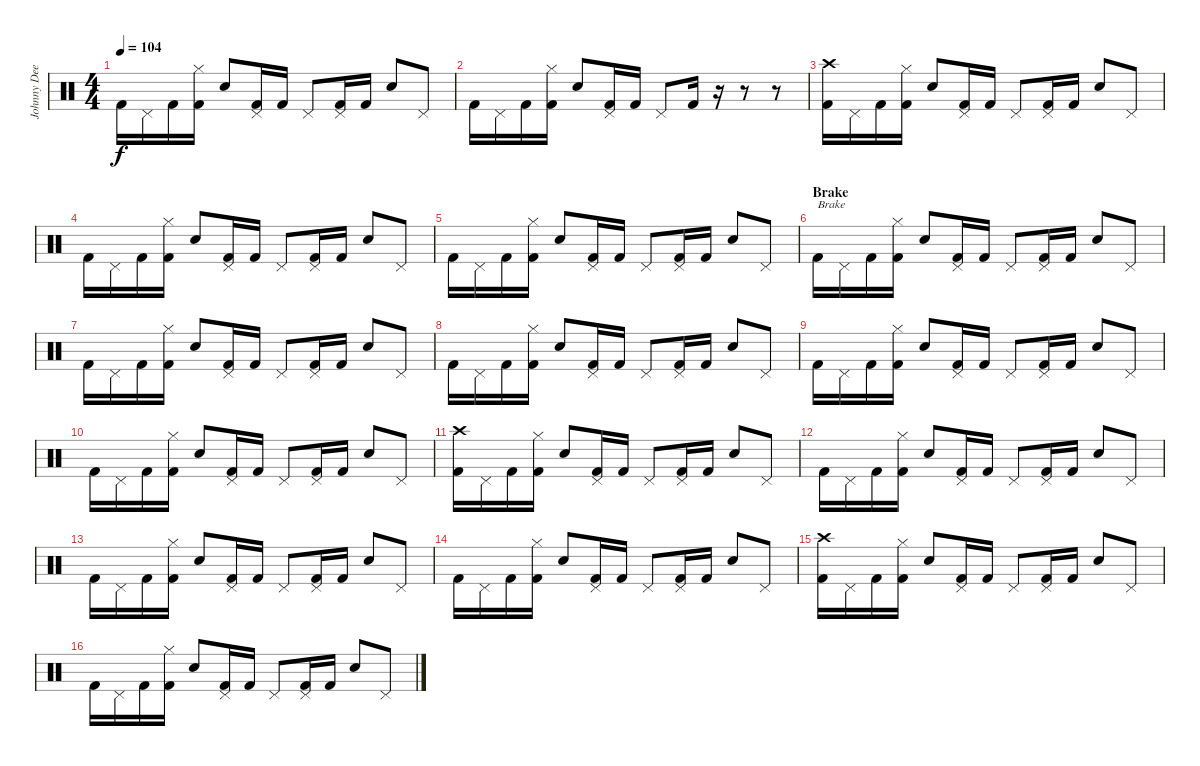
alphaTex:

\track ("Johnny Dee" "Johnny Dee") {instrument percussion}
\staff {score}
\articulation defaults
\ts (4 4)
\tempo 104
\clef neutral
\ks c "Kick (hit) 2".16{dy f} "Pedal Hi-Hat (hit)".16 "Kick (hit) 2".16
("Hi-Hat (closed)" "Kick (hit) 2").16 "Snare (hit) 2".8 ("Pedal Hi-Hat (hit)" "Kick (hit) 2").16 "Kick (hit) 2".16 "Pedal Hi-Hat (hit)".8 ("Pedal Hi-Hat (hit)" "Kick (hit) 2").16 "Kick (hit) 2".16 "Snare (hit) 2".8 "Pedal Hi-Hat (hit)".8 |
"Kick (hit) 2".16 "Pedal Hi-Hat (hit)".16 "Kick (hit) 2".16 ("Hi-Hat (closed)" "Kick (hit) 2").16 "Snare (hit) 2".8 ("Pedal Hi-Hat (hit)" "Kick (hit) 2").16 "Kick (hit) 2".16 "Pedal Hi-Hat (hit)".8 "Kick (hit) 2".16 r.16 r.8 r.8 |
("Crash high (hit)" "Kick (hit) 2").16 "Pedal Hi-Hat (hit)".16 "Kick (hit) 2".16 ("Hi-Hat (closed)" "Kick (hit) 2").16 "Snare (hit) 2".8 ("Pedal Hi-Hat (hit)" "Kick (hit) 2").16 "Kick (hit) 2".16 "Pedal Hi-Hat (hit)".8 ("Pedal Hi-Hat (hit)" "Kick (hit) 2").16 "Kick (hit) 2".16 "Snare (hit) 2".8 "Pedal Hi-Hat (hit)".8 |
"Kick (hit) 2".16 "Pedal Hi-Hat (hit)".16 "Kick (hit) 2".16 ("Hi-Hat (closed)" "Kick (hit) 2").16 "Snare (hit) 2".8 ("Pedal Hi-Hat (hit)" "Kick (hit) 2").16 "Kick (hit) 2".16 "Pedal Hi-Hat (hit)".8 ("Pedal Hi-Hat (hit)" "Kick (hit) 2").16 "Kick (hit) 2".16 "Snare (hit) 2".8 "Pedal Hi-Hat (hit)".8 |
"Kick (hit) 2".16 "Pedal Hi-Hat (hit)".16 "Kick (hit) 2".16 ("Hi-Hat (closed)" "Kick (hit) 2").16 "Snare (hit) 2".8 ("Pedal Hi-Hat (hit)" "Kick (hit) 2").16 "Kick (hit) 2".16 "Pedal Hi-Hat (hit)".8 ("Pedal Hi-Hat (hit)" "Kick (hit) 2").16 "Kick (hit) 2".16 "Snare (hit) 2".8 "Pedal Hi-Hat (hit)".8 |
\section ("" "Brake")
"Kick (hit) 2".16{txt "Brake"} "Pedal Hi-Hat (hit)".16 "Kick (hit) 2".16 ("Hi-Hat (closed)" "Kick (hit) 2").16 "Snare (hit) 2".8 ("Pedal Hi-Hat (hit)" "Kick (hit) 2").16 "Kick (hit) 2".16 "Pedal Hi-Hat (hit)".8 ("Pedal Hi-Hat (hit)" "Kick (hit) 2").16 "Kick (hit) 2".16 "Snare (hit) 2".8 "Pedal Hi-Hat (hit)".8 |
"Kick (hit) 2".16 "Pedal Hi-Hat (hit)".16 "Kick (hit) 2".16 ("Hi-Hat (closed)" "Kick (hit) 2").16 "Snare (hit) 2".8 ("Pedal Hi-Hat (hit)" "Kick (hit) 2").16 "Kick (hit) 2".16 "Pedal Hi-Hat (hit)".8 ("Pedal Hi-Hat (hit)" "Kick (hit) 2").16 "Kick (hit) 2".16 "Snare (hit) 2".8 "Pedal Hi-Hat (hit)".8 |
"Kick (hit) 2".16 "Pedal Hi-Hat (hit)".16 "Kick (hit) 2".16 ("Hi-Hat (closed)" "Kick (hit) 2").16 "Snare (hit) 2".8 ("Pedal Hi-Hat (hit)" "Kick (hit) 2").16 "Kick (hit) 2".16 "Pedal Hi-Hat (hit)".8 ("Pedal Hi-Hat (hit)" "Kick (hit) 2").16 "Kick (hit) 2".16 "Snare (hit) 2".8 "Pedal Hi-Hat (hit)".8 |
"Kick (hit) 2".16 "Pedal Hi-Hat (hit)".16 "Kick (hit) 2".16 ("Hi-Hat (closed)" "Kick (hit) 2").16 "Snare (hit) 2".8 ("Pedal Hi-Hat (hit)" "Kick (hit) 2").16 "Kick (hit) 2".16 "Pedal Hi-Hat (hit)".8 ("Pedal Hi-Hat (hit)" "Kick (hit) 2").16 "Kick (hit) 2".16 "Snare (hit) 2".8 "Pedal Hi-Hat (hit)".8 |
"Kick (hit) 2".16 "Pedal Hi-Hat (hit)".16 "Kick (hit) 2".16 ("Hi-Hat (closed)" "Kick (hit) 2").16 "Snare (hit) 2".8 ("Pedal Hi-Hat (hit)" "Kick (hit) 2").16 "Kick (hit) 2".16 "Pedal Hi-Hat (hit)".8 ("Pedal Hi-Hat (hit)" "Kick (hit) 2").16 "Kick (hit) 2".16 "Snare (hit) 2".8 "Pedal Hi-Hat (hit)".8 |
("Crash high (hit)" "Kick (hit) 2").16 "Pedal Hi-Hat (hit)".16 "Kick (hit) 2".16 ("Hi-Hat (closed)" "Kick (hit) 2").16 "Snare (hit) 2".8 ("Pedal Hi-Hat (hit)" "Kick (hit) 2").16 "Kick (hit) 2".16 "Pedal Hi-Hat (hit)".8 ("Pedal Hi-Hat (hit)" "Kick (hit) 2").16 "Kick (hit) 2".16 "Snare (hit) 2".8 "Pedal Hi-Hat (hit)".8 |
"Kick (hit) 2".16 "Pedal Hi-Hat (hit)".16 "Kick (hit) 2".16 ("Hi-Hat (closed)" "Kick (hit) 2").16 "Snare (hit) 2".8 ("Pedal Hi-Hat (hit)" "Kick (hit) 2").16 "Kick (hit) 2".16 "Pedal Hi-Hat (hit)".8 ("Pedal Hi-Hat (hit)" "Kick (hit) 2").16 "Kick (hit) 2".16 "Snare (hit) 2".8 "Pedal Hi-Hat (hit)".8 |
"Kick (hit) 2".16 "Pedal Hi-Hat (hit)".16 "Kick (hit) 2".16 ("Hi-Hat (closed)" "Kick (hit) 2").16 "Snare (hit) 2".8 ("Pedal Hi-Hat (hit)" "Kick (hit) 2").16 "Kick (hit) 2".16 "Pedal Hi-Hat (hit)".8 ("Pedal Hi-Hat (hit)" "Kick (hit) 2").16 "Kick (hit) 2".16 "Snare (hit) 2".8 "Pedal Hi-Hat (hit)".8 |
"Kick (hit) 2".16 "Pedal Hi-Hat (hit)".16 "Kick (hit) 2".16 ("Hi-Hat (closed)" "Kick (hit) 2").16 "Snare (hit) 2".8 ("Pedal Hi-Hat (hit)" "Kick (hit) 2").16 "Kick (hit) 2".16 "Pedal Hi-Hat (hit)".8 ("Pedal Hi-Hat (hit)" "Kick (hit) 2").16 "Kick (hit) 2".16 "Snare (hit) 2".8 "Pedal Hi-Hat (hit)".8 |
("Crash high (hit)" "Kick (hit) 2").16 "Pedal Hi-Hat (hit)".16 "Kick (hit) 2".16 ("Hi-Hat (closed)" "Kick (hit) 2").16 "Snare (hit) 2".8 ("Pedal Hi-Hat (hit)" "Kick (hit) 2").16 "Kick (hit) 2".16 "Pedal Hi-Hat (hit)".8 ("Pedal Hi-Hat (hit)" "Kick (hit) 2").16 "Kick (hit) 2".16 "Snare (hit) 2".8 "Pedal Hi-Hat (hit)".8 |
"Kick (hit) 2".16 "Pedal Hi-Hat (hit)".16 "Kick (hit) 2".16 ("Hi-Hat (closed)" "Kick (hit) 2").16 "Snare (hit) 2".8 ("Pedal Hi-Hat (hit)" "Kick (hit) 2").16 "Kick (hit) 2".16 "Pedal Hi-Hat (hit)".8 ("Pedal Hi-Hat (hit)" "Kick (hit) 2").16 "Kick (hit) 2".16 "Snare (hit) 2".8 "Pedal Hi-Hat (hit)".8
